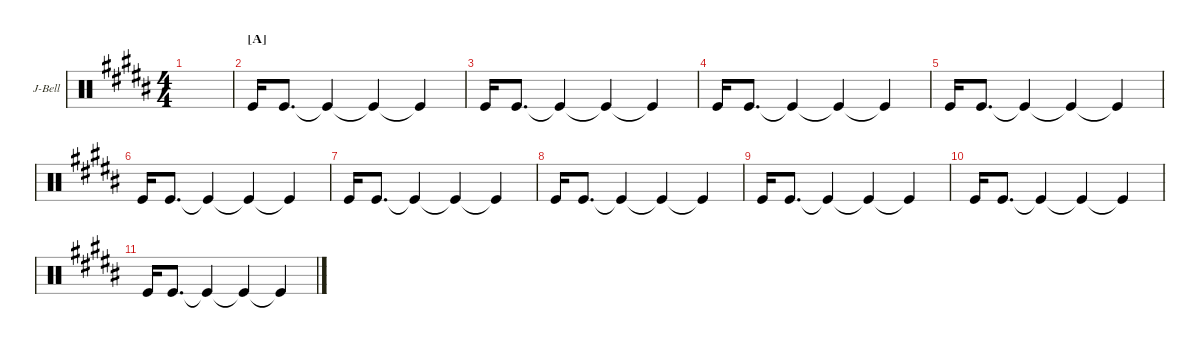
\defaultSystemsLayout 4
\hideDynamics
\bracketExtendMode groupsimilarinstruments
\firstSystemTrackNameOrientation horizontal
\otherSystemsTrackNameOrientation horizontal
\track ("Jingle Bell" "J-Bell") {instrument percussion}
\staff {score}
\articulation defaults
\ts (4 4)
\tempo (80 hide)
\clef neutral
\scale
0.551724
\ks g#minor
|
\section ("A" "")
\scale
0.224138 "Kick (hit)".16 "Kick (hit)".8{d} "Kick (hit)"{t}.4 "Kick (hit)"{t}.4 "Kick (hit)"{t}.4 |
\scale
0.224138 "Kick (hit)".16 "Kick (hit)".8{d} "Kick (hit)"{t}.4 "Kick (hit)"{t}.4 "Kick (hit)"{t}.4 |
\scale
0.333333 "Kick (hit)".16 "Kick (hit)".8{d} "Kick (hit)"{t}.4 "Kick (hit)"{t}.4 "Kick (hit)"{t}.4 |
\scale
0.333333 "Kick (hit)".16 "Kick (hit)".8{d} "Kick (hit)"{t}.4 "Kick (hit)"{t}.4 "Kick (hit)"{t}.4 |
\scale
0.333333 "Kick (hit)".16 "Kick (hit)".8{d} "Kick (hit)"{t}.4 "Kick (hit)"{t}.4 "Kick (hit)"{t}.4 |
\scale
0.333333 "Kick (hit)".16 "Kick (hit)".8{d} "Kick (hit)"{t}.4 "Kick (hit)"{t}.4 "Kick (hit)"{t}.4 |
\scale
0.333333 "Kick (hit)".16 "Kick (hit)".8{d} "Kick (hit)"{t}.4 "Kick (hit)"{t}.4 "Kick (hit)"{t}.4 |
\scale
0.333333 "Kick (hit)".16 "Kick (hit)".8{d} "Kick (hit)"{t}.4 "Kick (hit)"{t}.4 "Kick (hit)"{t}.4 |
\scale
0.333333 "Kick (hit)".16 "Kick (hit)".8{d} "Kick (hit)"{t}.4 "Kick (hit)"{t}.4 "Kick (hit)"{t}.4 |
\scale
0.333333 "Kick (hit)".16 "Kick (hit)".8{d} "Kick (hit)"{t}.4 "Kick (hit)"{t}.4 "Kick (hit)"{t}.4
